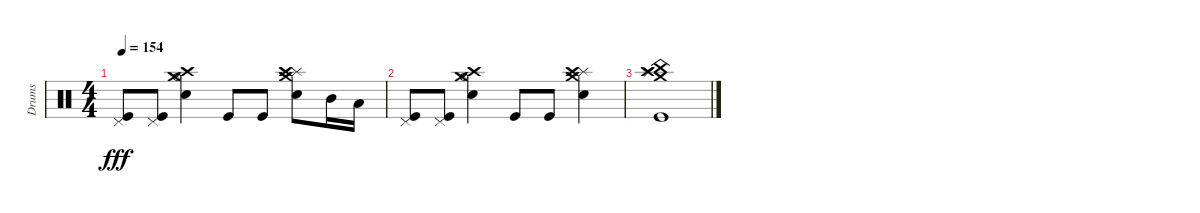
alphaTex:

\track ("Drums" "Drums") {instrument percussion}
\staff {score}
\articulation defaults
\ts (4 4)
\tempo 154
\clef neutral
\ks c
("Pedal Hi-Hat (hit)" "Kick (hit)").8{dy fff} ("Pedal Hi-Hat (hit)" "Kick (hit)").8 ("Crash high (hit)" "Crash medium (hit)" "Hi-Hat (open)" "Snare (hit) 2").4 "Kick (hit)".8 "Kick (hit)".8 ("Crash medium (hit)" "Splash (hit)" "Crash high (hit)" "Snare (hit) 2").8 "Mid Tom (hit)".16 "Low Tom (hit)".16 |
("Pedal Hi-Hat (hit)" "Kick (hit)").8 ("Pedal Hi-Hat (hit)" "Kick (hit)").8 ("Crash high (hit)" "Crash medium (hit)" "Hi-Hat (open)" "Snare (hit) 2").4 "Kick (hit)".8 "Kick (hit)".8 ("Crash medium (hit)" "Splash (hit)" "Crash high (hit)" "Snare (hit) 2").4 |
("Crash medium (hit)" "Splash (hit)" "Crash high (hit)" "China (hit)" "Kick (hit)").1
